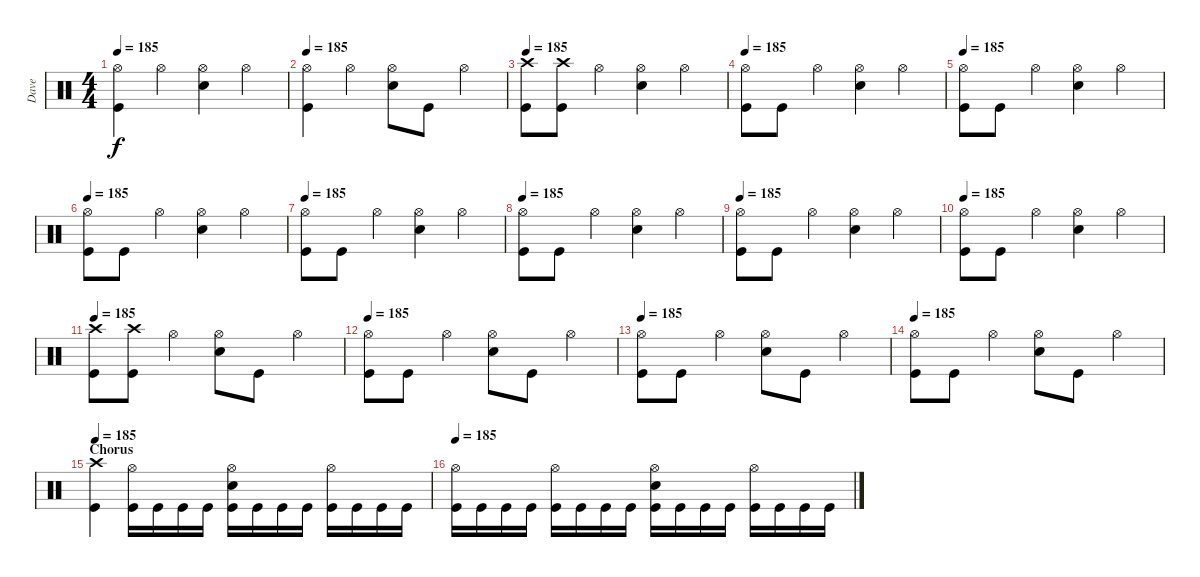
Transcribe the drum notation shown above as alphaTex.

\track ("Dave" "Dave") {instrument percussion}
\staff {score}
\articulation defaults
\ts (4 4)
\tempo 185
\clef neutral
\ks c
("Hi-Hat (open)" "Kick (hit)").4{dy f} "Hi-Hat (open)".4 ("Hi-Hat (open)" "Snare (hit) 2").4 "Hi-Hat (open)".4 |
\tempo 185
("Hi-Hat (open)" "Kick (hit)").4 "Hi-Hat (open)".4 ("Hi-Hat (open)" "Snare (hit) 2").8 "Kick (hit)".8 "Hi-Hat (open)".4 |
\tempo 185
("Crash high (hit)" "Kick (hit)").8 ("Crash high (hit)" "Kick (hit)").8 "Hi-Hat (open)".4 ("Hi-Hat (open)" "Snare (hit) 2").4 "Hi-Hat (open)".4 |
\tempo 185
("Hi-Hat (open)" "Kick (hit)").8 "Kick (hit)".8 "Hi-Hat (open)".4 ("Hi-Hat (open)" "Snare (hit) 2").4 "Hi-Hat (open)".4 |
\tempo 185
("Hi-Hat (open)" "Kick (hit)").8 "Kick (hit)".8 "Hi-Hat (open)".4 ("Hi-Hat (open)" "Snare (hit) 2").4 "Hi-Hat (open)".4 |
\tempo 185
("Hi-Hat (open)" "Kick (hit)").8 "Kick (hit)".8 "Hi-Hat (open)".4 ("Hi-Hat (open)" "Snare (hit) 2").4 "Hi-Hat (open)".4 |
\tempo 185
("Hi-Hat (open)" "Kick (hit)").8 "Kick (hit)".8 "Hi-Hat (open)".4 ("Hi-Hat (open)" "Snare (hit) 2").4 "Hi-Hat (open)".4 |
\tempo 185
("Hi-Hat (open)" "Kick (hit)").8 "Kick (hit)".8 "Hi-Hat (open)".4 ("Hi-Hat (open)" "Snare (hit) 2").4 "Hi-Hat (open)".4 |
\tempo 185
("Hi-Hat (open)" "Kick (hit)").8 "Kick (hit)".8 "Hi-Hat (open)".4 ("Hi-Hat (open)" "Snare (hit) 2").4 "Hi-Hat (open)".4 |
\tempo 185
("Hi-Hat (open)" "Kick (hit)").8 "Kick (hit)".8 "Hi-Hat (open)".4 ("Hi-Hat (open)" "Snare (hit) 2").4 "Hi-Hat (open)".4 |
\tempo 185
("Crash high (hit)" "Kick (hit)").8 ("Crash high (hit)" "Kick (hit)").8 "Hi-Hat (open)".4 ("Hi-Hat (open)" "Snare (hit) 2").8 "Kick (hit)".8 "Hi-Hat (open)".4 |
\tempo 185
("Hi-Hat (open)" "Kick (hit)").8 "Kick (hit)".8 "Hi-Hat (open)".4 ("Hi-Hat (open)" "Snare (hit) 2").8 "Kick (hit)".8 "Hi-Hat (open)".4 |
\tempo 185
("Hi-Hat (open)" "Kick (hit)").8 "Kick (hit)".8 "Hi-Hat (open)".4 ("Hi-Hat (open)" "Snare (hit) 2").8 "Kick (hit)".8 "Hi-Hat (open)".4 |
\tempo 185
("Hi-Hat (open)" "Kick (hit)").8 "Kick (hit)".8 "Hi-Hat (open)".4 ("Hi-Hat (open)" "Snare (hit) 2").8 "Kick (hit)".8 "Hi-Hat (open)".4 |
\section ("" "Chorus")
\tempo 185
("Crash high (hit)" "Kick (hit)").4 ("Hi-Hat (open)" "Kick (hit)").16 "Kick (hit)".16 "Kick (hit)".16 "Kick (hit)".16 ("Hi-Hat (open)" "Snare (hit) 2" "Kick (hit)").16 "Kick (hit)".16 "Kick (hit)".16 "Kick (hit)".16 ("Hi-Hat (open)" "Kick (hit)").16 "Kick (hit)".16 "Kick (hit)".16 "Kick (hit)".16 |
\tempo 185
("Hi-Hat (open)" "Kick (hit)").16 "Kick (hit)".16 "Kick (hit)".16 "Kick (hit)".16 ("Hi-Hat (open)" "Kick (hit)").16 "Kick (hit)".16 "Kick (hit)".16 "Kick (hit)".16 ("Hi-Hat (open)" "Snare (hit) 2" "Kick (hit)").16 "Kick (hit)".16 "Kick (hit)".16 "Kick (hit)".16 ("Hi-Hat (open)" "Kick (hit)").16 "Kick (hit)".16 "Kick (hit)".16 "Kick (hit)".16
